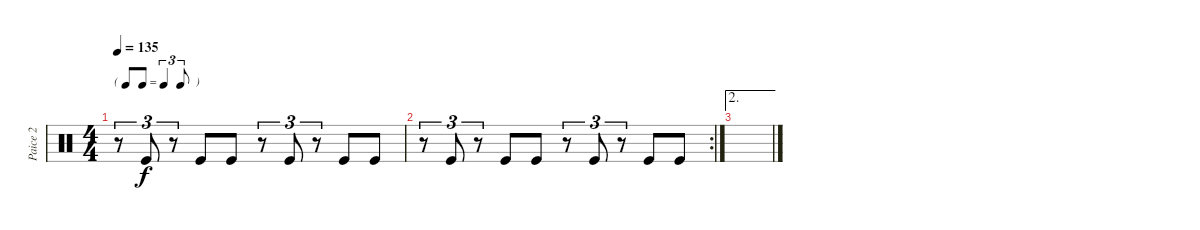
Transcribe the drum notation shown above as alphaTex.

\track ("Paice 2" "Paice 2") {instrument percussion}
\staff {score}
\articulation defaults
\ts (4 4)
\tf triplet8th
\tempo 135
\clef neutral
\ks c
r.8{tu (3 2) dy f} "Kick (hit)".8{tu (3 2)} r.8{tu (3 2)} "Kick (hit)".8 "Kick (hit)".8 r.8{tu (3 2)} "Kick (hit)".8{tu (3 2)} r.8{tu (3 2)} "Kick (hit)".8 "Kick (hit)".8 |
\rc 2
r.8{tu (3 2)} "Kick (hit)".8{tu (3 2)} r.8{tu (3 2)} "Kick (hit)".8 "Kick (hit)".8 r.8{tu (3 2)} "Kick (hit)".8{tu (3 2)} r.8{tu (3 2)} "Kick (hit)".8 "Kick (hit)".8 |
\ae 2
